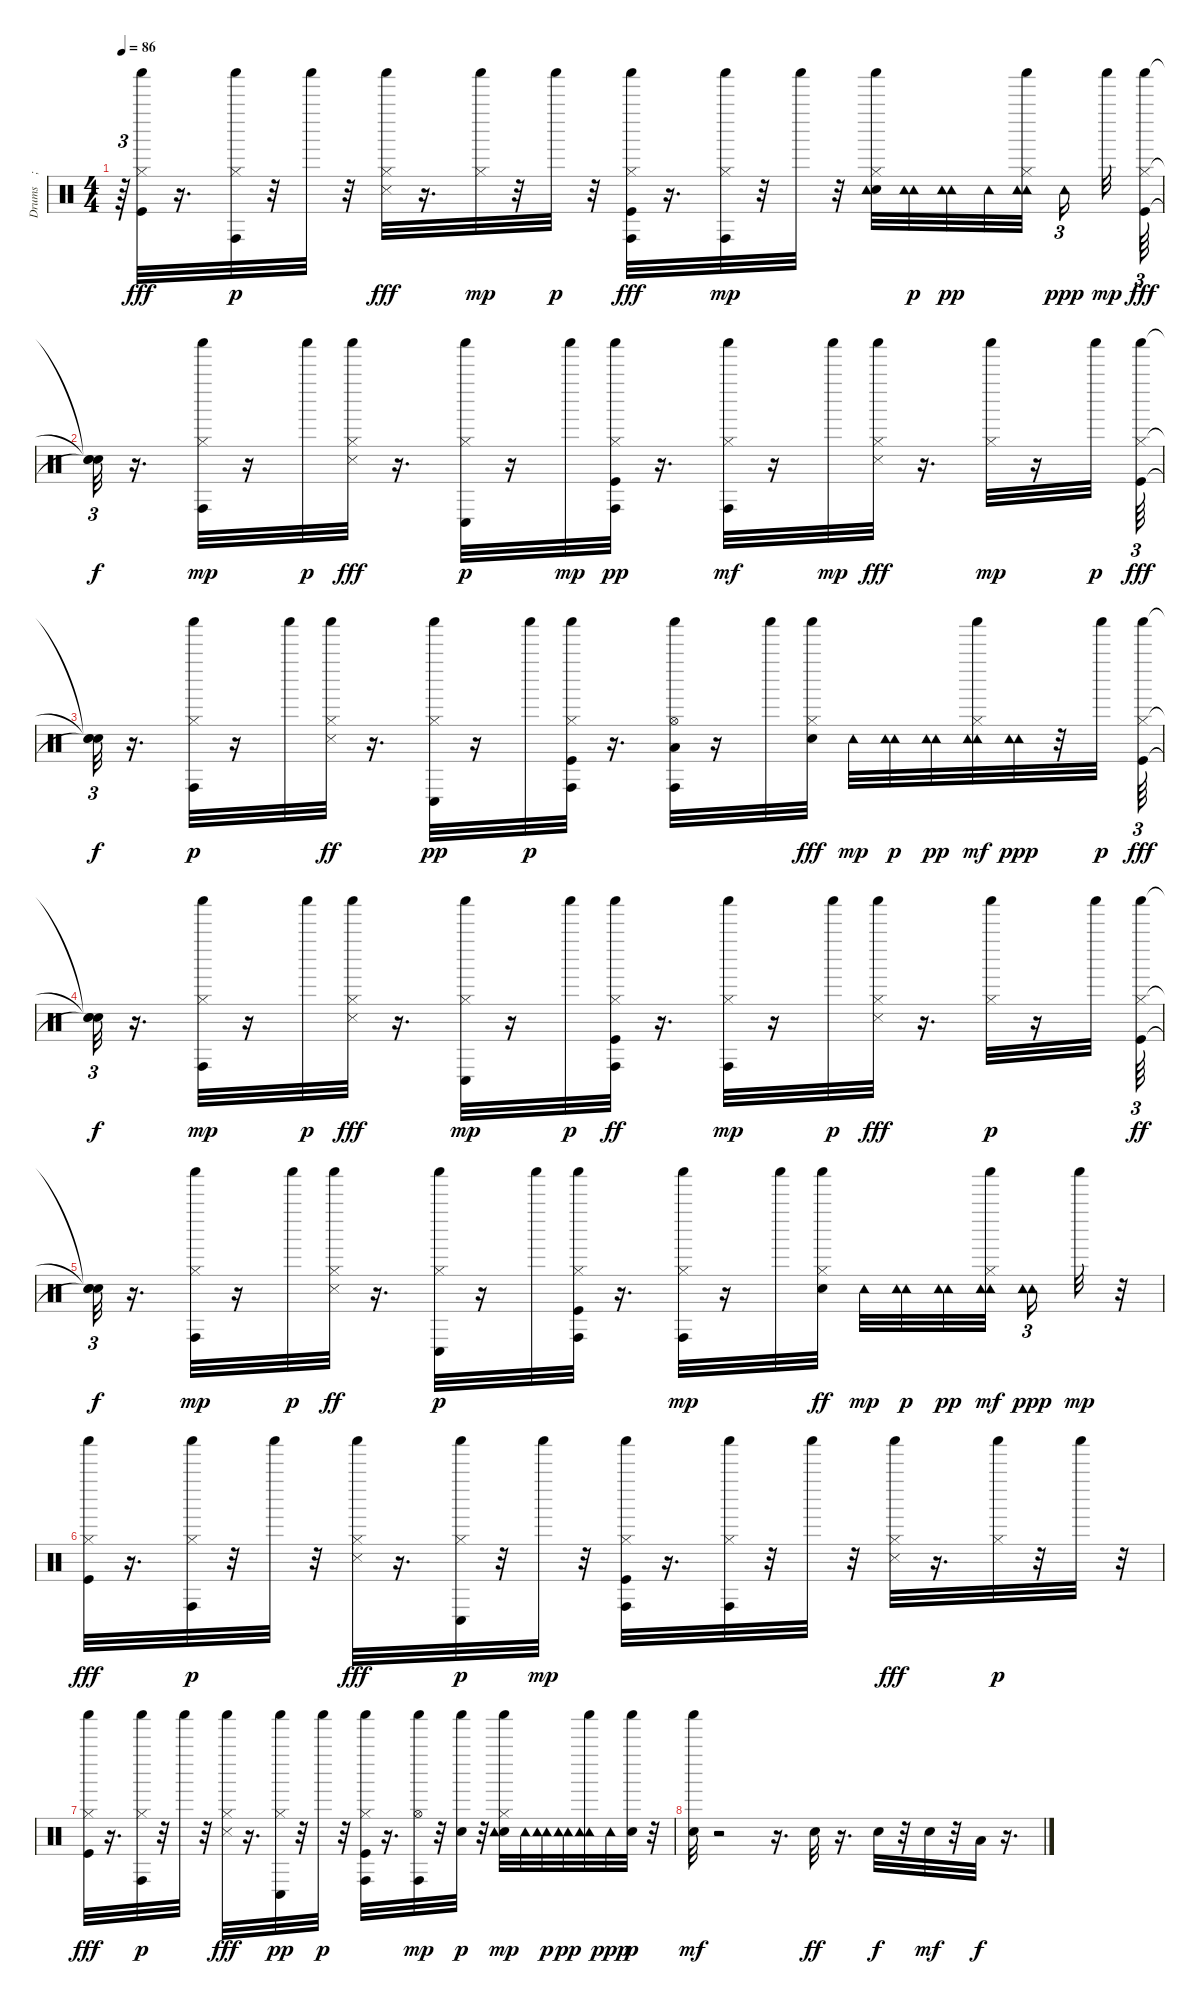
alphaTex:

\track ("Drums    ; Standard" "Drums    ;") {instrument percussion}
\staff {score}
\articulation defaults
\ts (4 4)
\tempo 86
\clef neutral
\ks c
r.64{tu (3 2) dy p} ("Kick (hit)" "Shaker (hit)" "Hi-Hat (closed)").32{dy fff} r.16{d} ("Shaker (hit)" "Hi-Hat (closed)" "Conga high (hit)").32{dy p} r.32 "Shaker (hit)".32 r.32 ("Shaker (hit)" "Hi-Hat (closed)" "Snare (side stick) 3").32{dy fff} r.16{d} ("Shaker (hit)" "Hi-Hat (closed)").32{dy mp} r.32 "Shaker (hit)".32{dy p} r.32 ("Kick (hit)" "Shaker (hit)" "Conga high (hit)" "Hi-Hat (closed)").32{dy fff} r.16{d} ("Conga high (hit)" "Shaker (hit)" "Hi-Hat (closed)").32{dy mp} r.32 "Shaker (hit)".32 r.32 ("Electric Snare (hit)" "Shaker (hit)" "Hi-Hat (closed)" "Tambourine (hit)").32 ("Tambourine (hit)" "Tambourine (hit)").32{dy p} ("Tambourine (hit)" "Tambourine (hit)").32{dy pp} "Tambourine (hit)".32 ("Tambourine (hit)" "Shaker (hit)" "Hi-Hat (closed)" "Tambourine (hit)").32 "Tambourine (hit)".16{tu (3 2) dy ppp} "Shaker (hit)".32{dy mp} ("Kick (hit)" "Shaker (hit)" "Hi-Hat (closed)").64{tu (3 2) dy fff} |
("Snare (hit)"{t} "Snare (hit)"{t} "Snare (hit)"{t}).32{tu (3 2) dy f} r.16{d} ("Conga high (hit)" "Shaker (hit)" "Hi-Hat (closed)").32{dy mp} r.16 "Shaker (hit)".32{dy p} ("Shaker (hit)" "Hi-Hat (closed)" "Snare (side stick) 3").32{dy fff} r.16{d} ("Conga low (hit)" "Shaker (hit)" "Hi-Hat (closed)").32{dy p} r.16 "Shaker (hit)".32{dy mp} ("Kick (hit)" "Hi-Hat (closed)" "Conga high (hit)" "Shaker (hit)").32{dy pp} r.16{d} ("Conga high (hit)" "Shaker (hit)" "Hi-Hat (closed)").32{dy mf} r.16 "Shaker (hit)".32{dy mp} ("Snare (side stick) 3" "Shaker (hit)" "Hi-Hat (closed)").32{dy fff} r.16{d} ("Shaker (hit)" "Hi-Hat (closed)").32{dy mp} r.16 "Shaker (hit)".32{dy p} ("Shaker (hit)" "Kick (hit)" "Hi-Hat (closed)").64{tu (3 2) dy fff} |
("Snare (hit)"{t} "Snare (hit)"{t} "Snare (hit)"{t}).32{tu (3 2) dy f} r.16{d} ("Hi-Hat (closed)" "Shaker (hit)" "Conga high (hit)").32{dy p} r.16 "Shaker (hit)".32 ("Snare (side stick) 3" "Hi-Hat (closed)" "Shaker (hit)").32{dy ff} r.16{d} ("Hi-Hat (closed)" "Shaker (hit)" "Conga low (hit)").32{dy pp} r.16 "Shaker (hit)".32{dy p} ("Kick (hit)" "Shaker (hit)" "Hi-Hat (closed)" "Conga high (hit)").32 r.16{d} ("Low Tom (hit)" "Shaker (hit)" "Hi-Hat (open)" "Conga high (hit)").32 r.16 "Shaker (hit)".32 ("Electric Snare (hit)" "Hi-Hat (closed)" "Shaker (hit)").32{dy fff} "Tambourine (hit)".32{dy mp} ("Tambourine (hit)" "Tambourine (hit)").32{dy p} ("Tambourine (hit)" "Tambourine (hit)").32{dy pp} ("Tambourine (hit)" "Tambourine (hit)" "Shaker (hit)" "Hi-Hat (closed)").32{dy mf} ("Tambourine (hit)" "Tambourine (hit)").32{dy ppp} r.32 "Shaker (hit)".32{dy p} ("Shaker (hit)" "Kick (hit)" "Hi-Hat (closed)").64{tu (3 2) dy fff} |
("Snare (hit)"{t} "Snare (hit)"{t} "Snare (hit)"{t}).32{tu (3 2) dy f} r.16{d} ("Conga high (hit)" "Shaker (hit)" "Hi-Hat (closed)").32{dy mp} r.16 "Shaker (hit)".32{dy p} ("Shaker (hit)" "Snare (side stick) 3" "Hi-Hat (closed)").32{dy fff} r.16{d} ("Conga low (hit)" "Shaker (hit)" "Hi-Hat (closed)").32{dy mp} r.16 "Shaker (hit)".32{dy p} ("Conga high (hit)" "Kick (hit)" "Shaker (hit)" "Hi-Hat (closed)").32{dy ff} r.16{d} ("Conga high (hit)" "Shaker (hit)" "Hi-Hat (closed)").32{dy mp} r.16 "Shaker (hit)".32{dy p} ("Snare (side stick) 3" "Shaker (hit)" "Hi-Hat (closed)").32{dy fff} r.16{d} ("Hi-Hat (closed)" "Shaker (hit)").32{dy p} r.16 "Shaker (hit)".32 ("Kick (hit)" "Hi-Hat (closed)" "Shaker (hit)").64{tu (3 2) dy ff} |
("Snare (hit)"{t} "Snare (hit)"{t} "Snare (hit)"{t}).32{tu (3 2) dy f} r.16{d} ("Shaker (hit)" "Hi-Hat (closed)" "Conga high (hit)").32{dy mp} r.16 "Shaker (hit)".32{dy p} ("Snare (side stick) 3" "Shaker (hit)" "Hi-Hat (closed)").32{dy ff} r.16{d} ("Conga low (hit)" "Shaker (hit)" "Hi-Hat (closed)").32{dy p} r.16 "Shaker (hit)".32 ("Kick (hit)" "Shaker (hit)" "Hi-Hat (closed)" "Conga high (hit)").32 r.16{d} ("Shaker (hit)" "Hi-Hat (closed)" "Conga high (hit)").32{dy mp} r.16 "Shaker (hit)".32 ("Electric Snare (hit)" "Shaker (hit)" "Hi-Hat (closed)").32{dy ff} "Tambourine (hit)".32{dy mp} ("Tambourine (hit)" "Tambourine (hit)").32{dy p} ("Tambourine (hit)" "Tambourine (hit)").32{dy pp} ("Tambourine (hit)" "Tambourine (hit)" "Shaker (hit)" "Hi-Hat (closed)").32{dy mf} ("Tambourine (hit)" "Tambourine (hit)").16{tu (3 2) dy ppp} "Shaker (hit)".32{dy mp} r.32 |
("Kick (hit)" "Shaker (hit)" "Hi-Hat (closed)").32{dy fff} r.16{d} ("Shaker (hit)" "Hi-Hat (closed)" "Conga high (hit)").32{dy p} r.32 "Shaker (hit)".32 r.32 ("Snare (side stick) 3" "Shaker (hit)" "Hi-Hat (closed)").32{dy fff} r.16{d} ("Shaker (hit)" "Hi-Hat (closed)" "Conga low (hit)").32{dy p} r.32 "Shaker (hit)".32{dy mp} r.32 ("Kick (hit)" "Shaker (hit)" "Hi-Hat (closed)" "Conga high (hit)").32 r.16{d} ("Hi-Hat (closed)" "Shaker (hit)" "Conga high (hit)").32 r.32 "Shaker (hit)".32 r.32 ("Shaker (hit)" "Snare (side stick) 3" "Hi-Hat (closed)").32{dy fff} r.16{d} ("Shaker (hit)" "Hi-Hat (closed)").32{dy p} r.32 "Shaker (hit)".32 r.32 |
("Shaker (hit)" "Kick (hit)" "Hi-Hat (closed)").32{dy fff} r.16{d} ("Shaker (hit)" "Hi-Hat (closed)" "Conga high (hit)").32{dy p} r.32 "Shaker (hit)".32 r.32 ("Shaker (hit)" "Hi-Hat (closed)" "Snare (side stick) 3").32{dy fff} r.16{d} ("Hi-Hat (closed)" "Shaker (hit)" "Conga low (hit)").32{dy pp} r.32 "Shaker (hit)".32{dy p} r.32 ("Kick (hit)" "Hi-Hat (closed)" "Shaker (hit)" "Conga high (hit)").32 r.16{d} ("Shaker (hit)" "Hi-Hat (open)" "Conga high (hit)").32{dy mp} r.32 ("Electric Snare (hit)" "Shaker (hit)").32{dy p} r.32 ("Electric Snare (hit)" "Hi-Hat (closed)" "Shaker (hit)" "Tambourine (hit)").32{dy mp} "Tambourine (hit)".32 ("Tambourine (hit)" "Tambourine (hit)").32{dy p} ("Tambourine (hit)" "Tambourine (hit)").32{dy pp} ("Tambourine (hit)" "Shaker (hit)" "Tambourine (hit)").32 "Tambourine (hit)".32{dy ppp} ("Electric Snare (hit)" "Shaker (hit)").32{dy p} r.32 |
("Electric Snare (hit)" "Shaker (hit)").32{dy mf} r.2 r.16{d} "Electric Snare (hit)".32{dy ff} r.16{d} "Electric Snare (hit)".32{dy f} r.32 "Electric Snare (hit)".32{dy mf} r.32 "Low Floor Tom (hit)".32{dy f} r.16{d}
